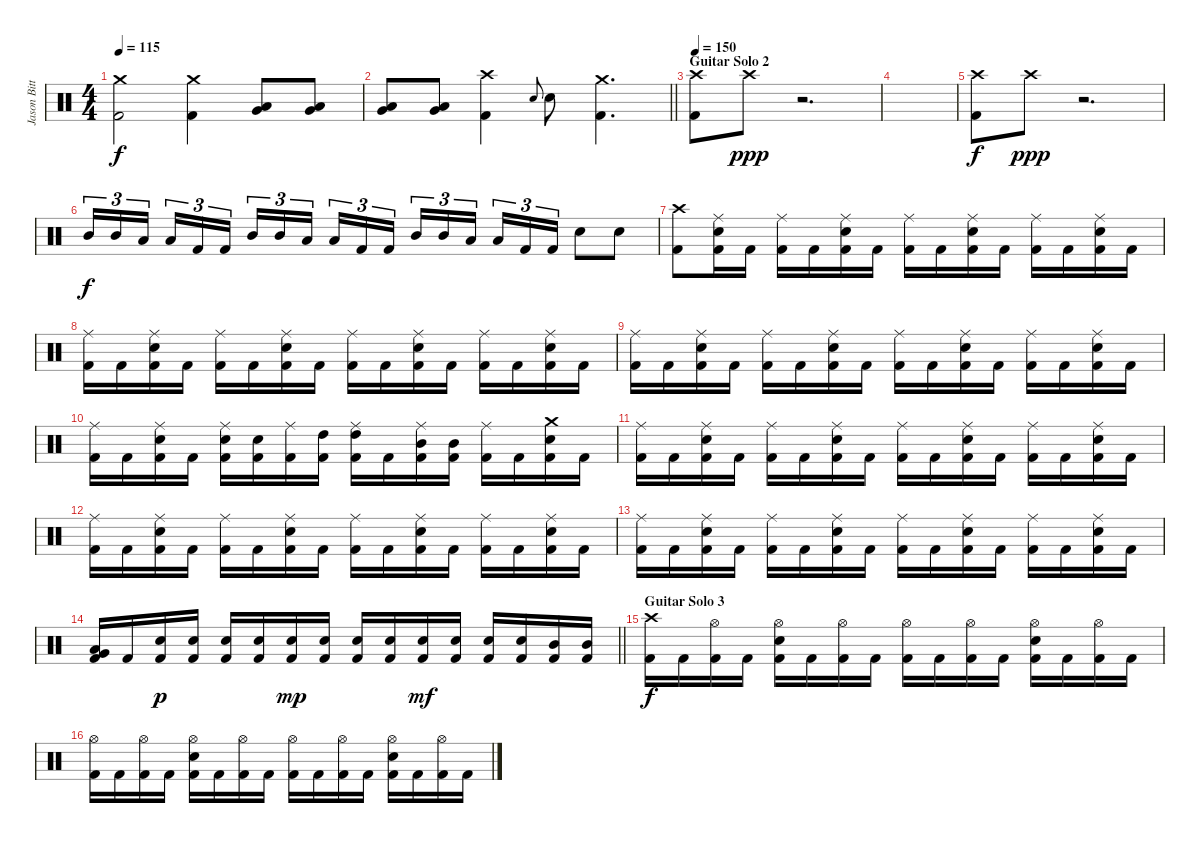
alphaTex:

\track ("Jason Bittner" "Jason Bitt") {instrument percussion}
\staff {score}
\articulation defaults
\ts (4 4)
\tempo 115
\clef neutral
\ks c
("Crash medium (hit)" "Kick (hit) 2").2{dy f} ("Crash medium (hit)" "Kick (hit) 2").4 ("Low Tom (hit)" "Very Low Tom (hit)").8 ("Low Tom (hit)" "Very Low Tom (hit)").8 |
\barLineRight lightlight
("Low Tom (hit)" "Very Low Tom (hit)").8 ("Low Tom (hit)" "Very Low Tom (hit)").8 ("Crash high (hit)" "Kick (hit) 2").4 "Electric Snare (hit)".8{gr onbeat} "Electric Snare (hit)".8 ("Crash medium (hit)" "Kick (hit) 2").4{d} |
\section ("" "Guitar Solo 2")
\tempo 150
("Crash high (hit)" "Kick (hit) 2").8 "Crash high (hit)".8{dy ppp} r.2{d} |
|
("Crash high (hit)" "Kick (hit) 2").8{dy f} "Crash high (hit)".8{dy ppp} r.2{d} |
"Mid Tom (hit)".16{tu (3 2) dy f} "Mid Tom (hit)".16{tu (3 2)} "Low Tom (hit)".16{tu (3 2) beam splitsecondary} "Low Tom (hit)".16{tu (3 2)} "Kick (hit) 2".16{tu (3 2)} "Kick (hit) 2".16{tu (3 2)} "Mid Tom (hit)".16{tu (3 2)} "Mid Tom (hit)".16{tu (3 2)} "Low Tom (hit)".16{tu (3 2) beam splitsecondary} "Low Tom (hit)".16{tu (3 2)} "Kick (hit) 2".16{tu (3 2)} "Kick (hit) 2".16{tu (3 2)} "Mid Tom (hit)".16{tu (3 2)} "Mid Tom (hit)".16{tu (3 2)} "Low Tom (hit)".16{tu (3 2) beam splitsecondary} "Low Tom (hit)".16{tu (3 2)} "Kick (hit) 2".16{tu (3 2)} "Kick (hit) 2".16{tu (3 2)} "Electric Snare (hit)".8 "Electric Snare (hit)".8 |
("Crash high (hit)" "Kick (hit) 2").8 ("Ride (middle)" "Electric Snare (hit)" "Kick (hit) 2").16 "Kick (hit) 2".16 ("Ride (middle)" "Kick (hit) 2").16 "Kick (hit) 2".16 ("Ride (middle)" "Electric Snare (hit)" "Kick (hit) 2").16 "Kick (hit) 2".16 ("Ride (middle)" "Kick (hit) 2").16 "Kick (hit) 2".16 ("Ride (middle)" "Electric Snare (hit)" "Kick (hit) 2").16 "Kick (hit) 2".16 ("Ride (middle)" "Kick (hit) 2").16 "Kick (hit) 2".16 ("Ride (middle)" "Electric Snare (hit)" "Kick (hit) 2").16 "Kick (hit) 2".16 |
("Ride (middle)" "Kick (hit) 2").16 "Kick (hit) 2".16 ("Ride (middle)" "Electric Snare (hit)" "Kick (hit) 2").16 "Kick (hit) 2".16 ("Ride (middle)" "Kick (hit) 2").16 "Kick (hit) 2".16 ("Ride (middle)" "Electric Snare (hit)" "Kick (hit) 2").16 "Kick (hit) 2".16 ("Ride (middle)" "Kick (hit) 2").16 "Kick (hit) 2".16 ("Ride (middle)" "Electric Snare (hit)" "Kick (hit) 2").16 "Kick (hit) 2".16 ("Ride (middle)" "Kick (hit) 2").16 "Kick (hit) 2".16 ("Ride (middle)" "Electric Snare (hit)" "Kick (hit) 2").16 "Kick (hit) 2".16 |
("Ride (middle)" "Kick (hit) 2").16 "Kick (hit) 2".16 ("Ride (middle)" "Electric Snare (hit)" "Kick (hit) 2").16 "Kick (hit) 2".16 ("Ride (middle)" "Kick (hit) 2").16 "Kick (hit) 2".16 ("Ride (middle)" "Electric Snare (hit)" "Kick (hit) 2").16 "Kick (hit) 2".16 ("Ride (middle)" "Kick (hit) 2").16 "Kick (hit) 2".16 ("Ride (middle)" "Electric Snare (hit)" "Kick (hit) 2").16 "Kick (hit) 2".16 ("Ride (middle)" "Kick (hit) 2").16 "Kick (hit) 2".16 ("Ride (middle)" "Electric Snare (hit)" "Kick (hit) 2").16 "Kick (hit) 2".16 |
("Ride (middle)" "Kick (hit) 2").16 "Kick (hit) 2".16 ("Ride (middle)" "Electric Snare (hit)" "Kick (hit) 2").16 "Kick (hit) 2".16 ("Ride (middle)" "Electric Snare (hit)" "Kick (hit) 2").16 ("Electric Snare (hit)" "Kick (hit) 2").16 ("Ride (middle)" "Kick (hit) 2").16 ("High Tom (hit)" "Kick (hit) 2").16 ("Ride (middle)" "High Tom (hit)" "Kick (hit) 2").16 "Kick (hit) 2".16 ("Ride (middle)" "Mid Tom (hit)" "Kick (hit) 2").16 ("Mid Tom (hit)" "Kick (hit) 2").16 ("Ride (middle)" "Kick (hit) 2").16 "Kick (hit) 2".16 ("Crash medium (hit)" "Electric Snare (hit)" "Kick (hit) 2").16 "Kick (hit) 2".16 |
("Ride (middle)" "Kick (hit) 2").16 "Kick (hit) 2".16 ("Ride (middle)" "Electric Snare (hit)" "Kick (hit) 2").16 "Kick (hit) 2".16 ("Ride (middle)" "Kick (hit) 2").16 "Kick (hit) 2".16 ("Ride (middle)" "Electric Snare (hit)" "Kick (hit) 2").16 "Kick (hit) 2".16 ("Ride (middle)" "Kick (hit) 2").16 "Kick (hit) 2".16 ("Ride (middle)" "Electric Snare (hit)" "Kick (hit) 2").16 "Kick (hit) 2".16 ("Ride (middle)" "Kick (hit) 2").16 "Kick (hit) 2".16 ("Ride (middle)" "Electric Snare (hit)" "Kick (hit) 2").16 "Kick (hit) 2".16 |
("Ride (middle)" "Kick (hit) 2").16 "Kick (hit) 2".16 ("Ride (middle)" "Electric Snare (hit)" "Kick (hit) 2").16 "Kick (hit) 2".16 ("Ride (middle)" "Kick (hit) 2").16 "Kick (hit) 2".16 ("Ride (middle)" "Electric Snare (hit)" "Kick (hit) 2").16 "Kick (hit) 2".16 ("Ride (middle)" "Kick (hit) 2").16 "Kick (hit) 2".16 ("Ride (middle)" "Electric Snare (hit)" "Kick (hit) 2").16 "Kick (hit) 2".16 ("Ride (middle)" "Kick (hit) 2").16 "Kick (hit) 2".16 ("Ride (middle)" "Electric Snare (hit)" "Kick (hit) 2").16 "Kick (hit) 2".16 |
("Ride (middle)" "Kick (hit) 2").16 "Kick (hit) 2".16 ("Ride (middle)" "Electric Snare (hit)" "Kick (hit) 2").16 "Kick (hit) 2".16 ("Ride (middle)" "Kick (hit) 2").16 "Kick (hit) 2".16 ("Ride (middle)" "Electric Snare (hit)" "Kick (hit) 2").16 "Kick (hit) 2".16 ("Ride (middle)" "Kick (hit) 2").16 "Kick (hit) 2".16 ("Ride (middle)" "Electric Snare (hit)" "Kick (hit) 2").16 "Kick (hit) 2".16 ("Ride (middle)" "Kick (hit) 2").16 "Kick (hit) 2".16 ("Ride (middle)" "Electric Snare (hit)" "Kick (hit) 2").16 "Kick (hit) 2".16 |
\barLineRight lightlight
("Low Tom (hit)" "Very Low Tom (hit)" "Kick (hit) 2").16 "Kick (hit) 2".16 ("Electric Snare (hit)" "Kick (hit) 2").16{dy p} ("Electric Snare (hit)" "Kick (hit) 2").16 ("Electric Snare (hit)" "Kick (hit) 2").16 ("Electric Snare (hit)" "Kick (hit) 2").16 ("Electric Snare (hit)" "Kick (hit) 2").16{dy mp} ("Electric Snare (hit)" "Kick (hit) 2").16 ("Electric Snare (hit)" "Kick (hit) 2").16 ("Electric Snare (hit)" "Kick (hit) 2").16 ("Electric Snare (hit)" "Kick (hit) 2").16{dy mf} ("Electric Snare (hit)" "Kick (hit) 2").16 ("Electric Snare (hit)" "Kick (hit) 2").16 ("Electric Snare (hit)" "Kick (hit) 2").16 ("Mid Tom (hit)" "Kick (hit) 2").16 ("Mid Tom (hit)" "Kick (hit) 2").16 |
\section ("" "Guitar Solo 3")
("Crash high (hit)" "Kick (hit) 2").16{dy f} "Kick (hit) 2".16 ("Hi-Hat (open)" "Kick (hit) 2").16 "Kick (hit) 2".16 ("Hi-Hat (open)" "Electric Snare (hit)" "Kick (hit) 2").16 "Kick (hit) 2".16 ("Hi-Hat (open)" "Kick (hit) 2").16 "Kick (hit) 2".16 ("Hi-Hat (open)" "Kick (hit) 2").16 "Kick (hit) 2".16 ("Hi-Hat (open)" "Kick (hit) 2").16 "Kick (hit) 2".16 ("Hi-Hat (open)" "Electric Snare (hit)" "Kick (hit) 2").16 "Kick (hit) 2".16 ("Hi-Hat (open)" "Kick (hit) 2").16 "Kick (hit) 2".16 |
("Hi-Hat (open)" "Kick (hit) 2").16 "Kick (hit) 2".16 ("Hi-Hat (open)" "Kick (hit) 2").16 "Kick (hit) 2".16 ("Hi-Hat (open)" "Electric Snare (hit)" "Kick (hit) 2").16 "Kick (hit) 2".16 ("Hi-Hat (open)" "Kick (hit) 2").16 "Kick (hit) 2".16 ("Hi-Hat (open)" "Kick (hit) 2").16 "Kick (hit) 2".16 ("Hi-Hat (open)" "Kick (hit) 2").16 "Kick (hit) 2".16 ("Hi-Hat (open)" "Electric Snare (hit)" "Kick (hit) 2").16 "Kick (hit) 2".16 ("Hi-Hat (open)" "Kick (hit) 2").16 "Kick (hit) 2".16
